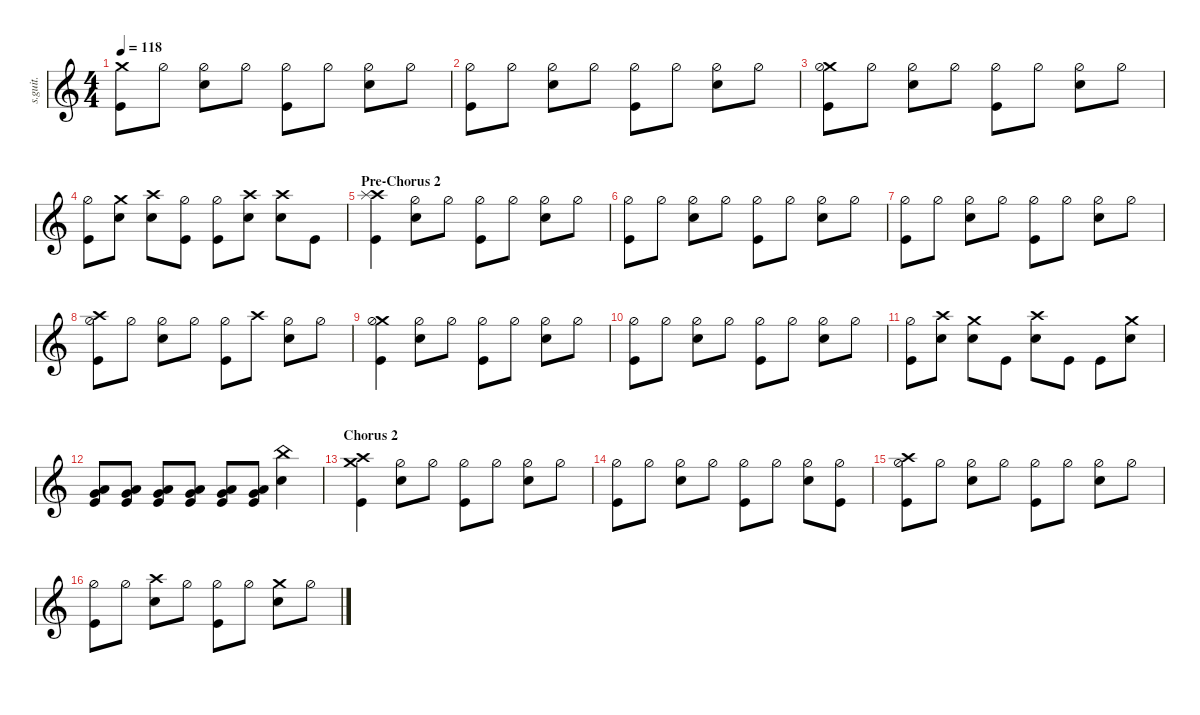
\defaultSystemsLayout 4
\hideDynamics
\bracketExtendMode nobrackets
\track ("Drums [Arin Ilejay]" "s.guit.") {instrument percussion}
\staff {score}
\articulation defaults
\ts (4 4)
\tempo 118
\clef g2
\ks c
("Crash medium (hit)" "Kick (hit)").8{lyrics (0 "") lyrics (1 "") lyrics (2 "") lyrics (3 "") lyrics (4 "") dy f} "Hi-Hat (half)".8{lyrics (0 "") lyrics (1 "") lyrics (2 "") lyrics (3 "") lyrics (4 "")} ("Hi-Hat (half)" "Snare (hit) 2").8{lyrics (0 "") lyrics (1 "") lyrics (2 "") lyrics (3 "") lyrics (4 "")} "Hi-Hat (half)".8{lyrics (0 "") lyrics (1 "") lyrics (2 "") lyrics (3 "") lyrics (4 "")} ("Hi-Hat (half)" "Kick (hit)").8{lyrics (0 "") lyrics (1 "") lyrics (2 "") lyrics (3 "") lyrics (4 "")} "Hi-Hat (half)".8{lyrics (0 "") lyrics (1 "") lyrics (2 "") lyrics (3 "") lyrics (4 "")} ("Hi-Hat (half)" "Snare (hit) 2").8{lyrics (0 "") lyrics (1 "") lyrics (2 "") lyrics (3 "") lyrics (4 "")} "Hi-Hat (half)".8{lyrics (0 "") lyrics (1 "") lyrics (2 "") lyrics (3 "") lyrics (4 "")} |
("Hi-Hat (half)" "Kick (hit)").8{lyrics (0 "") lyrics (1 "") lyrics (2 "") lyrics (3 "") lyrics (4 "")} "Hi-Hat (half)".8{lyrics (0 "") lyrics (1 "") lyrics (2 "") lyrics (3 "") lyrics (4 "")} ("Hi-Hat (half)" "Snare (hit) 2").8{lyrics (0 "") lyrics (1 "") lyrics (2 "") lyrics (3 "") lyrics (4 "")} "Hi-Hat (half)".8{lyrics (0 "") lyrics (1 "") lyrics (2 "") lyrics (3 "") lyrics (4 "")} ("Hi-Hat (half)" "Kick (hit)").8{lyrics (0 "") lyrics (1 "") lyrics (2 "") lyrics (3 "") lyrics (4 "")} "Hi-Hat (half)".8{lyrics (0 "") lyrics (1 "") lyrics (2 "") lyrics (3 "") lyrics (4 "")} ("Hi-Hat (half)" "Snare (hit) 2").8{lyrics (0 "") lyrics (1 "") lyrics (2 "") lyrics (3 "") lyrics (4 "")} "Hi-Hat (half)".8{lyrics (0 "") lyrics (1 "") lyrics (2 "") lyrics (3 "") lyrics (4 "")} |
("Crash medium (hit)" "Hi-Hat (half)" "Kick (hit)").8{lyrics (0 "") lyrics (1 "") lyrics (2 "") lyrics (3 "") lyrics (4 "")} "Hi-Hat (half)".8{lyrics (0 "") lyrics (1 "") lyrics (2 "") lyrics (3 "") lyrics (4 "")} ("Hi-Hat (half)" "Snare (hit) 2").8{lyrics (0 "") lyrics (1 "") lyrics (2 "") lyrics (3 "") lyrics (4 "")} "Hi-Hat (half)".8{lyrics (0 "") lyrics (1 "") lyrics (2 "") lyrics (3 "") lyrics (4 "")} ("Hi-Hat (half)" "Kick (hit)").8{lyrics (0 "") lyrics (1 "") lyrics (2 "") lyrics (3 "") lyrics (4 "")} "Hi-Hat (half)".8{lyrics (0 "") lyrics (1 "") lyrics (2 "") lyrics (3 "") lyrics (4 "")} ("Hi-Hat (half)" "Snare (hit) 2").8{lyrics (0 "") lyrics (1 "") lyrics (2 "") lyrics (3 "") lyrics (4 "")} "Hi-Hat (half)".8{lyrics (0 "") lyrics (1 "") lyrics (2 "") lyrics (3 "") lyrics (4 "")} |
("Hi-Hat (half)" "Kick (hit)").8{lyrics (0 "") lyrics (1 "") lyrics (2 "") lyrics (3 "") lyrics (4 "")} ("Crash medium (hit)" "Snare (hit) 2").8{lyrics (0 "") lyrics (1 "") lyrics (2 "") lyrics (3 "") lyrics (4 "")} ("Crash high (hit)" "Snare (hit) 2").8{lyrics (0 "") lyrics (1 "") lyrics (2 "") lyrics (3 "") lyrics (4 "")} ("Hi-Hat (half)" "Kick (hit)").8{lyrics (0 "") lyrics (1 "") lyrics (2 "") lyrics (3 "") lyrics (4 "")} ("Hi-Hat (half)" "Kick (hit)").8{lyrics (0 "") lyrics (1 "") lyrics (2 "") lyrics (3 "") lyrics (4 "")} ("Crash high (hit)" "Snare (hit) 2").8{lyrics (0 "") lyrics (1 "") lyrics (2 "") lyrics (3 "") lyrics (4 "")} ("Crash high (hit)" "Snare (hit) 2").8{lyrics (0 "") lyrics (1 "") lyrics (2 "") lyrics (3 "") lyrics (4 "")} "Kick (hit)".8{lyrics (0 "") lyrics (1 "") lyrics (2 "") lyrics (3 "") lyrics (4 "")} |
\section ("" "Pre-Chorus 2")
("Crash high (hit)" "Splash (hit)" "Kick (hit)").4{lyrics (0 "") lyrics (1 "") lyrics (2 "") lyrics (3 "") lyrics (4 "")} ("Hi-Hat (half)" "Snare (hit) 2").8{lyrics (0 "") lyrics (1 "") lyrics (2 "") lyrics (3 "") lyrics (4 "")} "Hi-Hat (half)".8{lyrics (0 "") lyrics (1 "") lyrics (2 "") lyrics (3 "") lyrics (4 "")} ("Hi-Hat (half)" "Kick (hit)").8{lyrics (0 "") lyrics (1 "") lyrics (2 "") lyrics (3 "") lyrics (4 "")} "Hi-Hat (half)".8{lyrics (0 "") lyrics (1 "") lyrics (2 "") lyrics (3 "") lyrics (4 "")} ("Hi-Hat (half)" "Snare (hit) 2").8{lyrics (0 "") lyrics (1 "") lyrics (2 "") lyrics (3 "") lyrics (4 "")} "Hi-Hat (half)".8{lyrics (0 "") lyrics (1 "") lyrics (2 "") lyrics (3 "") lyrics (4 "")} |
("Hi-Hat (half)" "Kick (hit)").8{lyrics (0 "") lyrics (1 "") lyrics (2 "") lyrics (3 "") lyrics (4 "")} "Hi-Hat (half)".8{lyrics (0 "") lyrics (1 "") lyrics (2 "") lyrics (3 "") lyrics (4 "")} ("Hi-Hat (half)" "Snare (hit) 2").8{lyrics (0 "") lyrics (1 "") lyrics (2 "") lyrics (3 "") lyrics (4 "")} "Hi-Hat (half)".8{lyrics (0 "") lyrics (1 "") lyrics (2 "") lyrics (3 "") lyrics (4 "")} ("Hi-Hat (half)" "Kick (hit)").8{lyrics (0 "") lyrics (1 "") lyrics (2 "") lyrics (3 "") lyrics (4 "")} "Hi-Hat (half)".8{lyrics (0 "") lyrics (1 "") lyrics (2 "") lyrics (3 "") lyrics (4 "")} ("Hi-Hat (half)" "Snare (hit) 2").8{lyrics (0 "") lyrics (1 "") lyrics (2 "") lyrics (3 "") lyrics (4 "")} "Hi-Hat (half)".8{lyrics (0 "") lyrics (1 "") lyrics (2 "") lyrics (3 "") lyrics (4 "")} |
("Hi-Hat (half)" "Kick (hit)").8{lyrics (0 "") lyrics (1 "") lyrics (2 "") lyrics (3 "") lyrics (4 "")} "Hi-Hat (half)".8{lyrics (0 "") lyrics (1 "") lyrics (2 "") lyrics (3 "") lyrics (4 "")} ("Hi-Hat (half)" "Snare (hit) 2").8{lyrics (0 "") lyrics (1 "") lyrics (2 "") lyrics (3 "") lyrics (4 "")} "Hi-Hat (half)".8{lyrics (0 "") lyrics (1 "") lyrics (2 "") lyrics (3 "") lyrics (4 "")} ("Hi-Hat (half)" "Kick (hit)").8{lyrics (0 "") lyrics (1 "") lyrics (2 "") lyrics (3 "") lyrics (4 "")} "Hi-Hat (half)".8{lyrics (0 "") lyrics (1 "") lyrics (2 "") lyrics (3 "") lyrics (4 "")} ("Hi-Hat (half)" "Snare (hit) 2").8{lyrics (0 "") lyrics (1 "") lyrics (2 "") lyrics (3 "") lyrics (4 "")} "Hi-Hat (half)".8{lyrics (0 "") lyrics (1 "") lyrics (2 "") lyrics (3 "") lyrics (4 "")} |
("Crash high (hit)" "Hi-Hat (half)" "Kick (hit)").8{lyrics (0 "") lyrics (1 "") lyrics (2 "") lyrics (3 "") lyrics (4 "")} "Hi-Hat (half)".8{lyrics (0 "") lyrics (1 "") lyrics (2 "") lyrics (3 "") lyrics (4 "")} ("Hi-Hat (half)" "Snare (hit) 2").8{lyrics (0 "") lyrics (1 "") lyrics (2 "") lyrics (3 "") lyrics (4 "")} "Hi-Hat (half)".8{lyrics (0 "") lyrics (1 "") lyrics (2 "") lyrics (3 "") lyrics (4 "")} ("Hi-Hat (half)" "Kick (hit)").8{lyrics (0 "") lyrics (1 "") lyrics (2 "") lyrics (3 "") lyrics (4 "")} "Crash high (hit)".8{lyrics (0 "") lyrics (1 "") lyrics (2 "") lyrics (3 "") lyrics (4 "")} ("Hi-Hat (half)" "Snare (hit) 2").8{lyrics (0 "") lyrics (1 "") lyrics (2 "") lyrics (3 "") lyrics (4 "")} "Hi-Hat (half)".8{lyrics (0 "") lyrics (1 "") lyrics (2 "") lyrics (3 "") lyrics (4 "")} |
("Crash medium (hit)" "Hi-Hat (half)" "Kick (hit)").4{lyrics (0 "") lyrics (1 "") lyrics (2 "") lyrics (3 "") lyrics (4 "")} ("Hi-Hat (half)" "Snare (hit) 2").8{lyrics (0 "") lyrics (1 "") lyrics (2 "") lyrics (3 "") lyrics (4 "")} "Hi-Hat (half)".8{lyrics (0 "") lyrics (1 "") lyrics (2 "") lyrics (3 "") lyrics (4 "")} ("Hi-Hat (half)" "Kick (hit)").8{lyrics (0 "") lyrics (1 "") lyrics (2 "") lyrics (3 "") lyrics (4 "")} "Hi-Hat (half)".8{lyrics (0 "") lyrics (1 "") lyrics (2 "") lyrics (3 "") lyrics (4 "")} ("Hi-Hat (half)" "Snare (hit) 2").8{lyrics (0 "") lyrics (1 "") lyrics (2 "") lyrics (3 "") lyrics (4 "")} "Hi-Hat (half)".8{lyrics (0 "") lyrics (1 "") lyrics (2 "") lyrics (3 "") lyrics (4 "")} |
("Hi-Hat (half)" "Kick (hit)").8{lyrics (0 "") lyrics (1 "") lyrics (2 "") lyrics (3 "") lyrics (4 "")} "Hi-Hat (half)".8{lyrics (0 "") lyrics (1 "") lyrics (2 "") lyrics (3 "") lyrics (4 "")} ("Hi-Hat (half)" "Snare (hit) 2").8{lyrics (0 "") lyrics (1 "") lyrics (2 "") lyrics (3 "") lyrics (4 "")} "Hi-Hat (half)".8{lyrics (0 "") lyrics (1 "") lyrics (2 "") lyrics (3 "") lyrics (4 "")} ("Hi-Hat (half)" "Kick (hit)").8{lyrics (0 "") lyrics (1 "") lyrics (2 "") lyrics (3 "") lyrics (4 "")} "Hi-Hat (half)".8{lyrics (0 "") lyrics (1 "") lyrics (2 "") lyrics (3 "") lyrics (4 "")} ("Hi-Hat (half)" "Snare (hit) 2").8{lyrics (0 "") lyrics (1 "") lyrics (2 "") lyrics (3 "") lyrics (4 "")} "Hi-Hat (half)".8{lyrics (0 "") lyrics (1 "") lyrics (2 "") lyrics (3 "") lyrics (4 "")} |
("Hi-Hat (half)" "Kick (hit)").8{lyrics (0 "") lyrics (1 "") lyrics (2 "") lyrics (3 "") lyrics (4 "")} ("Crash high (hit)" "Snare (hit) 2").8{lyrics (0 "") lyrics (1 "") lyrics (2 "") lyrics (3 "") lyrics (4 "")} ("Crash medium (hit)" "Snare (hit) 2").8{lyrics (0 "") lyrics (1 "") lyrics (2 "") lyrics (3 "") lyrics (4 "")} "Kick (hit)".8{lyrics (0 "") lyrics (1 "") lyrics (2 "") lyrics (3 "") lyrics (4 "")} ("Crash high (hit)" "Snare (hit) 2").8{lyrics (0 "") lyrics (1 "") lyrics (2 "") lyrics (3 "") lyrics (4 "")} "Kick (hit)".8{lyrics (0 "") lyrics (1 "") lyrics (2 "") lyrics (3 "") lyrics (4 "")} "Kick (hit)".8{lyrics (0 "") lyrics (1 "") lyrics (2 "") lyrics (3 "") lyrics (4 "")} ("Crash medium (hit)" "Snare (hit) 2").8{lyrics (0 "") lyrics (1 "") lyrics (2 "") lyrics (3 "") lyrics (4 "")} |
("Low Tom (hit)" "Very Low Tom (hit)" "Kick (hit)").8{lyrics (0 "") lyrics (1 "") lyrics (2 "") lyrics (3 "") lyrics (4 "") dy mp} ("Low Tom (hit)" "Very Low Tom (hit)" "Kick (hit)").8{lyrics (0 "") lyrics (1 "") lyrics (2 "") lyrics (3 "") lyrics (4 "")} ("Low Tom (hit)" "Very Low Tom (hit)" "Kick (hit)").8{lyrics (0 "") lyrics (1 "") lyrics (2 "") lyrics (3 "") lyrics (4 "")} ("Low Tom (hit)" "Very Low Tom (hit)" "Kick (hit)").8{lyrics (0 "") lyrics (1 "") lyrics (2 "") lyrics (3 "") lyrics (4 "")} ("Low Tom (hit)" "Very Low Tom (hit)" "Kick (hit)").8{lyrics (0 "") lyrics (1 "") lyrics (2 "") lyrics (3 "") lyrics (4 "")} ("Low Tom (hit)" "Very Low Tom (hit)" "Kick (hit)").8{lyrics (0 "") lyrics (1 "") lyrics (2 "") lyrics (3 "") lyrics (4 "")} ("China (hit)" "Snare (hit) 2").4{lyrics (0 "") lyrics (1 "") lyrics (2 "") lyrics (3 "") lyrics (4 "")} |
\section ("" "Chorus 2")
("Crash high (hit)" "Crash medium (hit)" "Kick (hit)").4{lyrics (0 "") lyrics (1 "") lyrics (2 "") lyrics (3 "") lyrics (4 "")} ("Hi-Hat (half)" "Snare (hit) 2").8{lyrics (0 "") lyrics (1 "") lyrics (2 "") lyrics (3 "") lyrics (4 "")} "Hi-Hat (half)".8{lyrics (0 "") lyrics (1 "") lyrics (2 "") lyrics (3 "") lyrics (4 "")} ("Hi-Hat (half)" "Kick (hit)").8{lyrics (0 "") lyrics (1 "") lyrics (2 "") lyrics (3 "") lyrics (4 "")} "Hi-Hat (half)".8{lyrics (0 "") lyrics (1 "") lyrics (2 "") lyrics (3 "") lyrics (4 "")} ("Hi-Hat (half)" "Snare (hit) 2").8{lyrics (0 "") lyrics (1 "") lyrics (2 "") lyrics (3 "") lyrics (4 "")} "Hi-Hat (half)".8{lyrics (0 "") lyrics (1 "") lyrics (2 "") lyrics (3 "") lyrics (4 "")} |
("Hi-Hat (half)" "Kick (hit)").8{lyrics (0 "") lyrics (1 "") lyrics (2 "") lyrics (3 "") lyrics (4 "")} "Hi-Hat (half)".8{lyrics (0 "") lyrics (1 "") lyrics (2 "") lyrics (3 "") lyrics (4 "")} ("Hi-Hat (half)" "Snare (hit) 2").8{lyrics (0 "") lyrics (1 "") lyrics (2 "") lyrics (3 "") lyrics (4 "")} "Hi-Hat (half)".8{lyrics (0 "") lyrics (1 "") lyrics (2 "") lyrics (3 "") lyrics (4 "")} ("Hi-Hat (half)" "Kick (hit)").8{lyrics (0 "") lyrics (1 "") lyrics (2 "") lyrics (3 "") lyrics (4 "")} "Hi-Hat (half)".8{lyrics (0 "") lyrics (1 "") lyrics (2 "") lyrics (3 "") lyrics (4 "")} ("Hi-Hat (half)" "Snare (hit) 2").8{lyrics (0 "") lyrics (1 "") lyrics (2 "") lyrics (3 "") lyrics (4 "")} ("Hi-Hat (half)" "Kick (hit)").8{lyrics (0 "") lyrics (1 "") lyrics (2 "") lyrics (3 "") lyrics (4 "")} |
("Crash high (hit)" "Hi-Hat (half)" "Kick (hit)").8{lyrics (0 "") lyrics (1 "") lyrics (2 "") lyrics (3 "") lyrics (4 "")} "Hi-Hat (half)".8{lyrics (0 "") lyrics (1 "") lyrics (2 "") lyrics (3 "") lyrics (4 "")} ("Hi-Hat (half)" "Snare (hit) 2").8{lyrics (0 "") lyrics (1 "") lyrics (2 "") lyrics (3 "") lyrics (4 "")} "Hi-Hat (half)".8{lyrics (0 "") lyrics (1 "") lyrics (2 "") lyrics (3 "") lyrics (4 "")} ("Hi-Hat (half)" "Kick (hit)").8{lyrics (0 "") lyrics (1 "") lyrics (2 "") lyrics (3 "") lyrics (4 "")} "Hi-Hat (half)".8{lyrics (0 "") lyrics (1 "") lyrics (2 "") lyrics (3 "") lyrics (4 "")} ("Hi-Hat (half)" "Snare (hit) 2").8{lyrics (0 "") lyrics (1 "") lyrics (2 "") lyrics (3 "") lyrics (4 "")} "Hi-Hat (half)".8{lyrics (0 "") lyrics (1 "") lyrics (2 "") lyrics (3 "") lyrics (4 "")} |
("Hi-Hat (half)" "Kick (hit)").8{lyrics (0 "") lyrics (1 "") lyrics (2 "") lyrics (3 "") lyrics (4 "")} "Hi-Hat (half)".8{lyrics (0 "") lyrics (1 "") lyrics (2 "") lyrics (3 "") lyrics (4 "")} ("Crash high (hit)" "Snare (hit) 2").8{lyrics (0 "") lyrics (1 "") lyrics (2 "") lyrics (3 "") lyrics (4 "")} "Hi-Hat (half)".8{lyrics (0 "") lyrics (1 "") lyrics (2 "") lyrics (3 "") lyrics (4 "")} ("Hi-Hat (half)" "Kick (hit)").8{lyrics (0 "") lyrics (1 "") lyrics (2 "") lyrics (3 "") lyrics (4 "")} "Hi-Hat (half)".8{lyrics (0 "") lyrics (1 "") lyrics (2 "") lyrics (3 "") lyrics (4 "")} ("Crash medium (hit)" "Snare (hit) 2").8{lyrics (0 "") lyrics (1 "") lyrics (2 "") lyrics (3 "") lyrics (4 "")} "Hi-Hat (half)".8{lyrics (0 "") lyrics (1 "") lyrics (2 "") lyrics (3 "") lyrics (4 "")}
